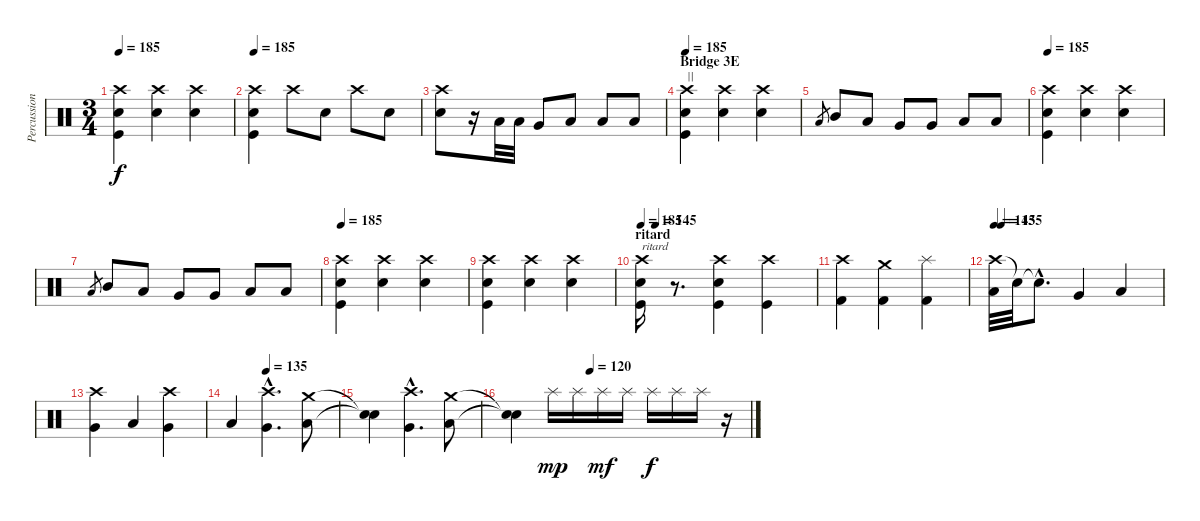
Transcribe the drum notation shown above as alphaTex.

\track ("Percussion" "Percussion") {instrument percussion}
\staff {score}
\articulation defaults
\ts (3 4)
\tempo 185
\clef neutral
\ks c
("Crash high (hit)" "Electric Snare (hit)" "Kick (hit)").4{dy f} ("Crash high (hit)" "Electric Snare (hit)").4 ("Crash high (hit)" "Electric Snare (hit)").4 |
\tempo 185
("Crash high (hit)" "Electric Snare (hit)" "Kick (hit)").4 "Crash high (hit)".8 "Electric Snare (hit)".8 "Crash high (hit)".8 "Electric Snare (hit)".8 |
("Crash high (hit)" "Electric Snare (hit)").8 r.16 "Low Tom (hit)".32 "Low Tom (hit)".32 "Very Low Tom (hit)".8 "Low Tom (hit)".8 "Low Floor Tom (hit)".8 "Low Floor Tom (hit)".8 |
\section ("" "Bridge 3E")
\tempo 185
("Crash high (hit)" "Electric Snare (hit)" "Kick (hit)").4{txt "||"} ("Crash high (hit)" "Electric Snare (hit)").4 ("Crash high (hit)" "Electric Snare (hit)").4 |
"Low Tom (hit)".8{gr} "Mid Tom (hit)".8 "Low Tom (hit)".8 "Very Low Tom (hit)".8 "Very Low Tom (hit)".8 "Low Floor Tom (hit)".8 "Low Floor Tom (hit)".8 |
\tempo 185
("Crash high (hit)" "Electric Snare (hit)" "Kick (hit)").4 ("Crash high (hit)" "Electric Snare (hit)").4 ("Crash high (hit)" "Electric Snare (hit)").4 |
"Low Tom (hit)".8{gr} "Mid Tom (hit)".8 "Low Tom (hit)".8 "Very Low Tom (hit)".8 "Very Low Tom (hit)".8 "Low Floor Tom (hit)".8 "Low Floor Tom (hit)".8 |
\tempo 185
("Crash high (hit)" "Electric Snare (hit)" "Kick (hit)").4 ("Crash high (hit)" "Electric Snare (hit)").4 ("Crash high (hit)" "Electric Snare (hit)").4 |
("Crash high (hit)" "Electric Snare (hit)" "Kick (hit)").4 ("Crash high (hit)" "Electric Snare (hit)").4 ("Crash high (hit)" "Electric Snare (hit)").4 |
\section ("" "ritard")
\tempo 185
\tempo (145 0.08333333333333333)
("Crash high (hit)" "Electric Snare (hit)" "Kick (hit)").16{txt "ritard"} r.8{d} ("Crash high (hit)" "Electric Snare (hit)" "Kick (hit)").4 ("Crash high (hit)" "Kick (hit)").4 |
("Crash high (hit)" "Kick (hit) 2").4 ("Crash medium (hit)" "Kick (hit) 2").4 ("Splash (hit)" "Kick (hit) 2").4 |
\tempo 145
\tempo (135 0.041666666666666664)
("Crash high (hit)" "Low Floor Tom (hit)").32 "Snare (hit)"{t}.32 "Snare (hit)"{hac t}.8{d} "Very Low Tom (hit)".4 "Low Floor Tom (hit)".4 |
("Crash high (hit)" "Very Low Tom (hit)").4 "Low Floor Tom (hit)".4 ("Crash high (hit)" "Very Low Tom (hit)").4 |
\tempo (135 0.3333333333333333)
"Low Floor Tom (hit)".4 ("Crash high (hit)"{hac} "Very Low Tom (hit)"{hac}).4{d} ("Crash medium (hit)" "Low Floor Tom (hit)").8 |
("Snare (hit)"{t} "Snare (hit)"{t}).4 ("Crash high (hit)"{hac} "Very Low Tom (hit)"{hac}).4{d} ("Crash medium (hit)" "Low Floor Tom (hit)").8 |
\tempo (120 0.3333333333333333)
("Snare (hit)"{t} "Snare (hit)"{t}).4 "Splash (hit)".16{dy mp} "Splash (hit)".16 "Splash (hit)".16{dy mf} "Splash (hit)".16 "Splash (hit)".16{dy f} "Splash (hit)".16 "Splash (hit)".16 r.16
